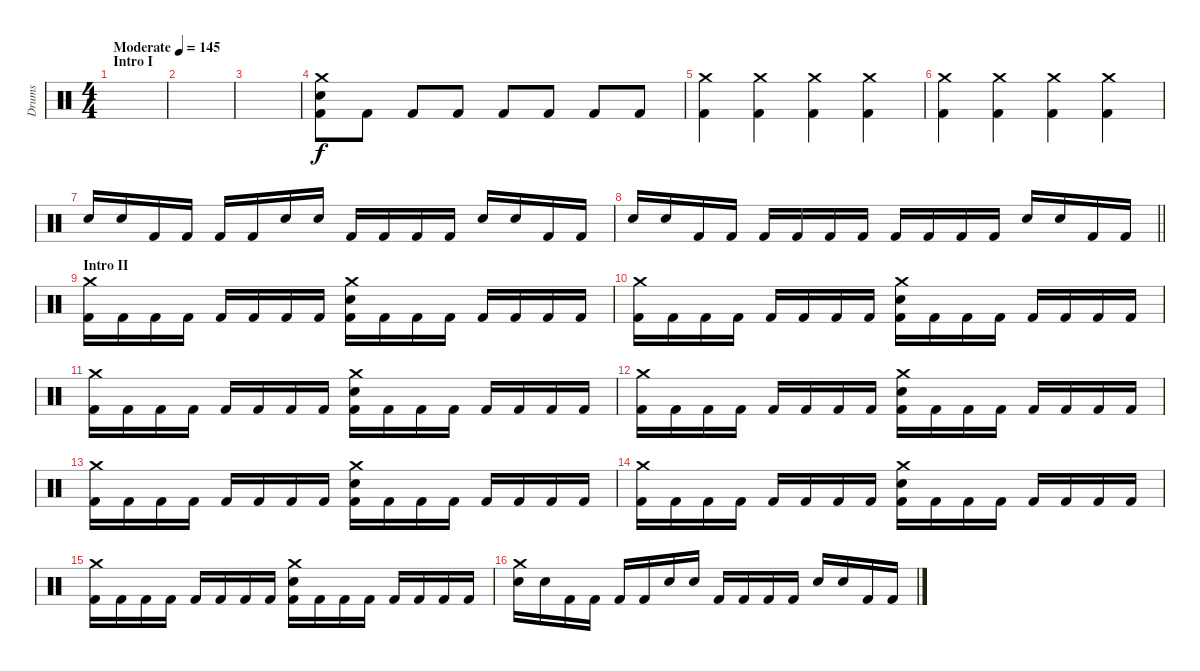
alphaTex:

\track ("Drums" "Drums") {instrument percussion}
\staff {score}
\articulation defaults
\ts (4 4)
\section ("" "Intro I")
\tempo (145 "Moderate")
\clef neutral
\ks c
|
|
|
("Crash medium (hit)" "Electric Snare (hit)" "Kick (hit) 2").8 "Kick (hit) 2".8 "Kick (hit) 2".8 "Kick (hit) 2".8 "Kick (hit) 2".8 "Kick (hit) 2".8 "Kick (hit) 2".8 "Kick (hit) 2".8 |
("Crash medium (hit)" "Kick (hit) 2").4 ("Crash medium (hit)" "Kick (hit) 2").4 ("Crash medium (hit)" "Kick (hit) 2").4 ("Crash medium (hit)" "Kick (hit) 2").4 |
("Crash medium (hit)" "Kick (hit) 2").4 ("Crash medium (hit)" "Kick (hit) 2").4 ("Crash medium (hit)" "Kick (hit) 2").4 ("Crash medium (hit)" "Kick (hit) 2").4 |
"Snare (hit) 2".16 "Snare (hit) 2".16 "Kick (hit) 2".16 "Kick (hit) 2".16 "Kick (hit) 2".16 "Kick (hit) 2".16 "Snare (hit) 2".16 "Snare (hit) 2".16 "Kick (hit) 2".16 "Kick (hit) 2".16 "Kick (hit) 2".16 "Kick (hit) 2".16 "Snare (hit) 2".16 "Snare (hit) 2".16 "Kick (hit) 2".16 "Kick (hit) 2".16 |
\barLineRight lightlight "Snare (hit) 2".16 "Snare (hit) 2".16 "Kick (hit) 2".16 "Kick (hit) 2".16 "Kick (hit) 2".16 "Kick (hit) 2".16 "Kick (hit) 2".16 "Kick (hit) 2".16 "Kick (hit) 2".16 "Kick (hit) 2".16 "Kick (hit) 2".16 "Kick (hit) 2".16 "Snare (hit) 2".16 "Snare (hit) 2".16 "Kick (hit) 2".16 "Kick (hit) 2".16
|
\section ("" "Intro II")
("Crash medium (hit)" "Kick (hit) 2").16 "Kick (hit) 2".16 "Kick (hit) 2".16 "Kick (hit) 2".16 "Kick (hit) 2".16 "Kick (hit) 2".16 "Kick (hit) 2".16 "Kick (hit) 2".16 ("Crash medium (hit)" "Snare (hit) 2" "Kick (hit) 2").16 "Kick (hit) 2".16 "Kick (hit) 2".16 "Kick (hit) 2".16 "Kick (hit) 2".16 "Kick (hit) 2".16 "Kick (hit) 2".16 "Kick (hit) 2".16 |
("Crash medium (hit)" "Kick (hit) 2").16 "Kick (hit) 2".16 "Kick (hit) 2".16 "Kick (hit) 2".16 "Kick (hit) 2".16 "Kick (hit) 2".16 "Kick (hit) 2".16 "Kick (hit) 2".16 ("Crash medium (hit)" "Snare (hit) 2" "Kick (hit) 2").16 "Kick (hit) 2".16 "Kick (hit) 2".16 "Kick (hit) 2".16 "Kick (hit) 2".16 "Kick (hit) 2".16 "Kick (hit) 2".16 "Kick (hit) 2".16 |
("Crash medium (hit)" "Kick (hit) 2").16 "Kick (hit) 2".16 "Kick (hit) 2".16 "Kick (hit) 2".16 "Kick (hit) 2".16 "Kick (hit) 2".16 "Kick (hit) 2".16 "Kick (hit) 2".16 ("Crash medium (hit)" "Snare (hit) 2" "Kick (hit) 2").16 "Kick (hit) 2".16 "Kick (hit) 2".16 "Kick (hit) 2".16 "Kick (hit) 2".16 "Kick (hit) 2".16 "Kick (hit) 2".16 "Kick (hit) 2".16 |
("Crash medium (hit)" "Kick (hit) 2").16 "Kick (hit) 2".16 "Kick (hit) 2".16 "Kick (hit) 2".16 "Kick (hit) 2".16 "Kick (hit) 2".16 "Kick (hit) 2".16 "Kick (hit) 2".16 ("Crash medium (hit)" "Snare (hit) 2" "Kick (hit) 2").16 "Kick (hit) 2".16 "Kick (hit) 2".16 "Kick (hit) 2".16 "Kick (hit) 2".16 "Kick (hit) 2".16 "Kick (hit) 2".16 "Kick (hit) 2".16 |
("Crash medium (hit)" "Kick (hit) 2").16 "Kick (hit) 2".16 "Kick (hit) 2".16 "Kick (hit) 2".16 "Kick (hit) 2".16 "Kick (hit) 2".16 "Kick (hit) 2".16 "Kick (hit) 2".16 ("Crash medium (hit)" "Snare (hit) 2" "Kick (hit) 2").16 "Kick (hit) 2".16 "Kick (hit) 2".16 "Kick (hit) 2".16 "Kick (hit) 2".16 "Kick (hit) 2".16 "Kick (hit) 2".16 "Kick (hit) 2".16 |
("Crash medium (hit)" "Kick (hit) 2").16 "Kick (hit) 2".16 "Kick (hit) 2".16 "Kick (hit) 2".16 "Kick (hit) 2".16 "Kick (hit) 2".16 "Kick (hit) 2".16 "Kick (hit) 2".16 ("Crash medium (hit)" "Snare (hit) 2" "Kick (hit) 2").16 "Kick (hit) 2".16 "Kick (hit) 2".16 "Kick (hit) 2".16 "Kick (hit) 2".16 "Kick (hit) 2".16 "Kick (hit) 2".16 "Kick (hit) 2".16 |
("Crash medium (hit)" "Kick (hit) 2").16 "Kick (hit) 2".16 "Kick (hit) 2".16 "Kick (hit) 2".16 "Kick (hit) 2".16 "Kick (hit) 2".16 "Kick (hit) 2".16 "Kick (hit) 2".16 ("Crash medium (hit)" "Snare (hit) 2" "Kick (hit) 2").16 "Kick (hit) 2".16 "Kick (hit) 2".16 "Kick (hit) 2".16 "Kick (hit) 2".16 "Kick (hit) 2".16 "Kick (hit) 2".16 "Kick (hit) 2".16 |
("Crash medium (hit)" "Snare (hit) 2").16 "Snare (hit) 2".16 "Kick (hit) 2".16 "Kick (hit) 2".16 "Kick (hit) 2".16 "Kick (hit) 2".16 "Snare (hit) 2".16 "Snare (hit) 2".16 "Kick (hit) 2".16 "Kick (hit) 2".16 "Kick (hit) 2".16 "Kick (hit) 2".16 "Snare (hit) 2".16 "Snare (hit) 2".16 "Kick (hit) 2".16 "Kick (hit) 2".16
